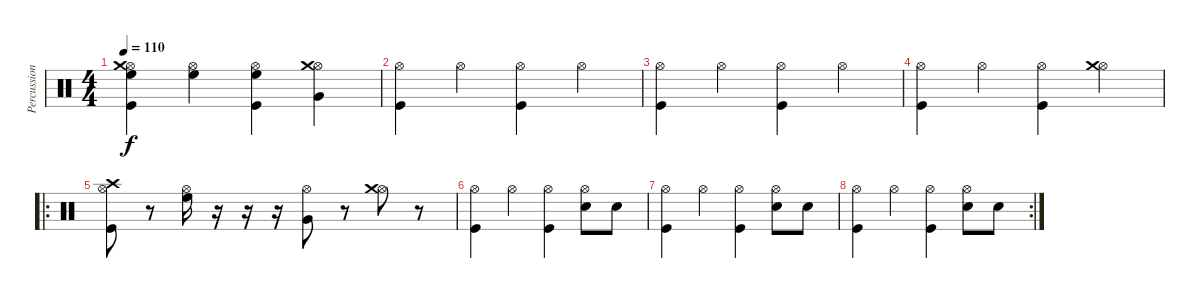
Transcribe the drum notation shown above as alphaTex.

\track ("Percussion" "Percussion") {instrument percussion}
\staff {score}
\articulation defaults
\ts (4 4)
\tempo 110
\clef neutral
\ks c
("Hi-Hat (open)" "Crash medium (hit)" "High Floor Tom (hit)" "Kick (hit)").4{dy f} ("Hi-Hat (open)" "High Floor Tom (hit)").4 ("Hi-Hat (open)" "High Floor Tom (hit)" "Kick (hit)").4 ("Hi-Hat (open)" "Crash medium (hit)" "Very Low Tom (hit)").4 |
("Hi-Hat (open)" "Kick (hit)").4 "Hi-Hat (open)".4 ("Hi-Hat (open)" "Kick (hit)").4 "Hi-Hat (open)".4 |
("Hi-Hat (open)" "Kick (hit)").4 "Hi-Hat (open)".4 ("Hi-Hat (open)" "Kick (hit)").4 "Hi-Hat (open)".4 |
("Hi-Hat (open)" "Kick (hit)").4 "Hi-Hat (open)".4 ("Hi-Hat (open)" "Kick (hit)").4 ("Hi-Hat (open)" "Crash medium (hit)").4 |
\ro
("Hi-Hat (open)" "Crash high (hit)" "Kick (hit)").8 r.8 ("Hi-Hat (open)" "High Floor Tom (hit)").16 r.16 r.16 r.16 ("Hi-Hat (open)" "Very Low Tom (hit)").8 r.8 ("Hi-Hat (open)" "Crash medium (hit)").8 r.8 |
("Hi-Hat (open)" "Kick (hit)").4 "Hi-Hat (open)".4 ("Hi-Hat (open)" "Kick (hit)").4 ("Hi-Hat (open)" "Snare (hit) 2").8 "Snare (hit) 2".8 |
("Hi-Hat (open)" "Kick (hit)").4 "Hi-Hat (open)".4 ("Hi-Hat (open)" "Kick (hit)").4 ("Hi-Hat (open)" "Snare (hit) 2").8 "Snare (hit) 2".8 |
\rc 2
("Hi-Hat (open)" "Kick (hit)").4 "Hi-Hat (open)".4 ("Hi-Hat (open)" "Kick (hit)").4 ("Hi-Hat (open)" "Snare (hit) 2").8 "Snare (hit) 2".8
